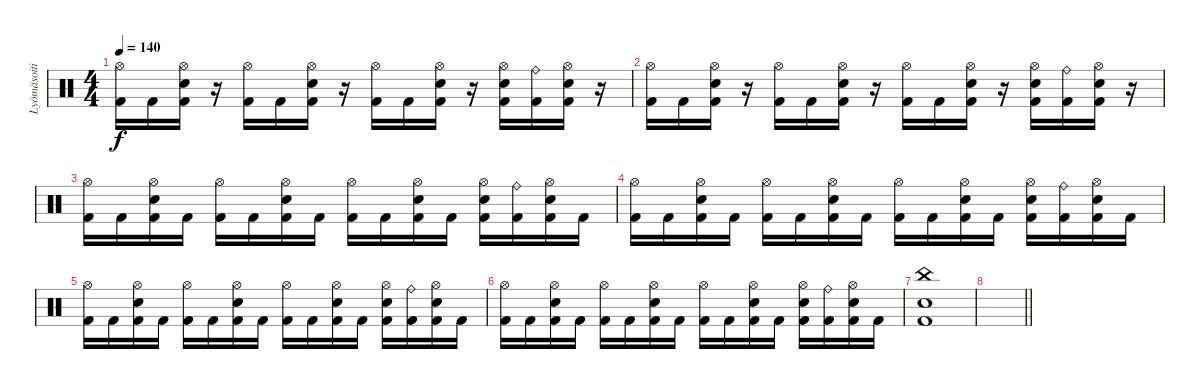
\track ("Lyömäsoitin" "Lyömäsoiti") {instrument percussion}
\staff {score}
\articulation defaults
\ts (4 4)
\tempo 140
\clef neutral
\ks c
("Hi-Hat (open)" "Kick (hit) 2").16{dy f} "Kick (hit) 2".16 ("Hi-Hat (open)" "Electric Snare (hit)" "Kick (hit) 2").16 r.16 ("Hi-Hat (open)" "Kick (hit) 2").16 "Kick (hit) 2".16 ("Hi-Hat (open)" "Electric Snare (hit)" "Kick (hit) 2").16 r.16 ("Hi-Hat (open)" "Kick (hit) 2").16 "Kick (hit) 2".16 ("Hi-Hat (open)" "Electric Snare (hit)" "Kick (hit) 2").16 r.16 ("Hi-Hat (open)" "Electric Snare (hit)" "Kick (hit) 2").16 ("Ride (bell)" "Kick (hit) 2").16 ("Hi-Hat (open)" "Electric Snare (hit)" "Kick (hit) 2").16 r.16 |
("Hi-Hat (open)" "Kick (hit) 2").16 "Kick (hit) 2".16 ("Hi-Hat (open)" "Electric Snare (hit)" "Kick (hit) 2").16 r.16 ("Hi-Hat (open)" "Kick (hit) 2").16 "Kick (hit) 2".16 ("Hi-Hat (open)" "Electric Snare (hit)" "Kick (hit) 2").16 r.16 ("Hi-Hat (open)" "Kick (hit) 2").16 "Kick (hit) 2".16 ("Hi-Hat (open)" "Electric Snare (hit)" "Kick (hit) 2").16 r.16 ("Hi-Hat (open)" "Electric Snare (hit)" "Kick (hit) 2").16 ("Ride (bell)" "Kick (hit) 2").16 ("Hi-Hat (open)" "Electric Snare (hit)" "Kick (hit) 2").16 r.16 |
("Hi-Hat (open)" "Kick (hit) 2").16 "Kick (hit) 2".16 ("Hi-Hat (open)" "Electric Snare (hit)" "Kick (hit) 2").16 "Kick (hit) 2".16 ("Hi-Hat (open)" "Kick (hit) 2").16 "Kick (hit) 2".16 ("Hi-Hat (open)" "Electric Snare (hit)" "Kick (hit) 2").16 "Kick (hit) 2".16 ("Hi-Hat (open)" "Kick (hit) 2").16 "Kick (hit) 2".16 ("Hi-Hat (open)" "Electric Snare (hit)" "Kick (hit) 2").16 "Kick (hit) 2".16 ("Hi-Hat (open)" "Electric Snare (hit)" "Kick (hit) 2").16 ("Ride (bell)" "Kick (hit) 2").16 ("Hi-Hat (open)" "Electric Snare (hit)" "Kick (hit) 2").16 "Kick (hit) 2".16 |
("Hi-Hat (open)" "Kick (hit) 2").16 "Kick (hit) 2".16 ("Hi-Hat (open)" "Electric Snare (hit)" "Kick (hit) 2").16 "Kick (hit) 2".16 ("Hi-Hat (open)" "Kick (hit) 2").16 "Kick (hit) 2".16 ("Hi-Hat (open)" "Electric Snare (hit)" "Kick (hit) 2").16 "Kick (hit) 2".16 ("Hi-Hat (open)" "Kick (hit) 2").16 "Kick (hit) 2".16 ("Hi-Hat (open)" "Electric Snare (hit)" "Kick (hit) 2").16 "Kick (hit) 2".16 ("Hi-Hat (open)" "Electric Snare (hit)" "Kick (hit) 2").16 ("Ride (bell)" "Kick (hit) 2").16 ("Hi-Hat (open)" "Electric Snare (hit)" "Kick (hit) 2").16 "Kick (hit) 2".16 |
("Hi-Hat (open)" "Kick (hit) 2").16 "Kick (hit) 2".16 ("Hi-Hat (open)" "Electric Snare (hit)" "Kick (hit) 2").16 "Kick (hit) 2".16 ("Hi-Hat (open)" "Kick (hit) 2").16 "Kick (hit) 2".16 ("Hi-Hat (open)" "Electric Snare (hit)" "Kick (hit) 2").16 "Kick (hit) 2".16 ("Hi-Hat (open)" "Kick (hit) 2").16 "Kick (hit) 2".16 ("Hi-Hat (open)" "Electric Snare (hit)" "Kick (hit) 2").16 "Kick (hit) 2".16 ("Hi-Hat (open)" "Electric Snare (hit)" "Kick (hit) 2").16 ("Ride (bell)" "Kick (hit) 2").16 ("Hi-Hat (open)" "Electric Snare (hit)" "Kick (hit) 2").16 "Kick (hit) 2".16 |
("Hi-Hat (open)" "Kick (hit) 2").16 "Kick (hit) 2".16 ("Hi-Hat (open)" "Electric Snare (hit)" "Kick (hit) 2").16 "Kick (hit) 2".16 ("Hi-Hat (open)" "Kick (hit) 2").16 "Kick (hit) 2".16 ("Hi-Hat (open)" "Electric Snare (hit)" "Kick (hit) 2").16 "Kick (hit) 2".16 ("Hi-Hat (open)" "Kick (hit) 2").16 "Kick (hit) 2".16 ("Hi-Hat (open)" "Electric Snare (hit)" "Kick (hit) 2").16 "Kick (hit) 2".16 ("Hi-Hat (open)" "Electric Snare (hit)" "Kick (hit) 2").16 ("Ride (bell)" "Kick (hit) 2").16 ("Hi-Hat (open)" "Electric Snare (hit)" "Kick (hit) 2").16 "Kick (hit) 2".16 |
("China (hit)" "Electric Snare (hit)" "Kick (hit) 2").1 |
\barLineRight lightlight
